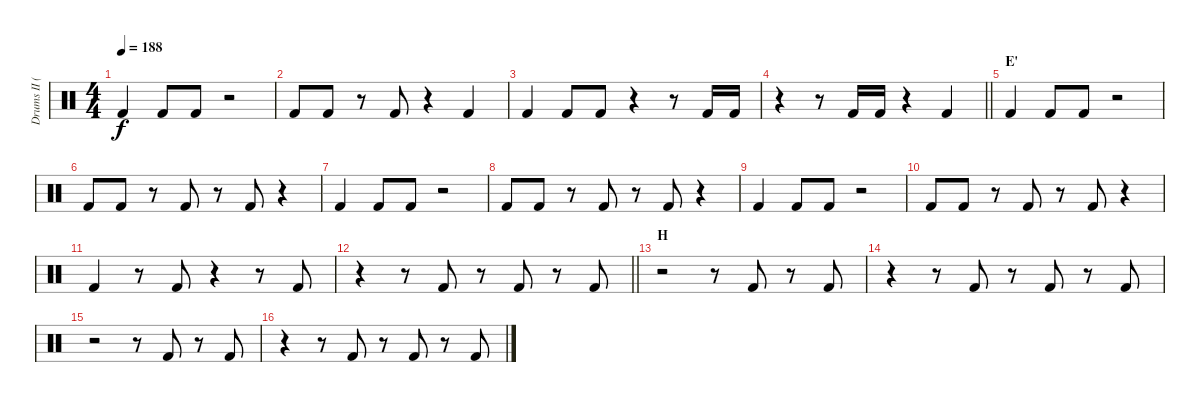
\track ("Drums II (Ruka)" "Drums II (") {instrument percussion}
\staff {score}
\articulation defaults
\ts (4 4)
\tempo 188
\clef neutral
\ks c "Kick (hit) 2".4{dy f} "Kick (hit) 2".8 "Kick (hit) 2".8
r.2 |
"Kick (hit) 2".8 "Kick (hit) 2".8 r.8 "Kick (hit) 2".8 r.4 "Kick (hit) 2".4 |
"Kick (hit) 2".4 "Kick (hit) 2".8 "Kick (hit) 2".8 r.4 r.8 "Kick (hit) 2".16 "Kick (hit) 2".16 |
\barLineRight lightlight
r.4 r.8 "Kick (hit) 2".16 "Kick (hit) 2".16 r.4 "Kick (hit) 2".4 |
\section ("" "E'")
"Kick (hit) 2".4 "Kick (hit) 2".8 "Kick (hit) 2".8 r.2 |
"Kick (hit) 2".8 "Kick (hit) 2".8 r.8 "Kick (hit) 2".8 r.8 "Kick (hit) 2".8 r.4 |
"Kick (hit) 2".4 "Kick (hit) 2".8 "Kick (hit) 2".8 r.2 |
"Kick (hit) 2".8 "Kick (hit) 2".8 r.8 "Kick (hit) 2".8 r.8 "Kick (hit) 2".8 r.4 |
"Kick (hit) 2".4 "Kick (hit) 2".8 "Kick (hit) 2".8 r.2 |
"Kick (hit) 2".8 "Kick (hit) 2".8 r.8 "Kick (hit) 2".8 r.8 "Kick (hit) 2".8 r.4 |
"Kick (hit) 2".4 r.8 "Kick (hit) 2".8 r.4 r.8 "Kick (hit) 2".8 |
\barLineRight lightlight
r.4 r.8 "Kick (hit) 2".8 r.8 "Kick (hit) 2".8 r.8 "Kick (hit) 2".8 |
\section ("" "H")
r.2 r.8 "Kick (hit) 2".8 r.8 "Kick (hit) 2".8 |
r.4 r.8 "Kick (hit) 2".8 r.8 "Kick (hit) 2".8 r.8 "Kick (hit) 2".8 |
r.2 r.8 "Kick (hit) 2".8 r.8 "Kick (hit) 2".8 |
r.4 r.8 "Kick (hit) 2".8 r.8 "Kick (hit) 2".8 r.8 "Kick (hit) 2".8
